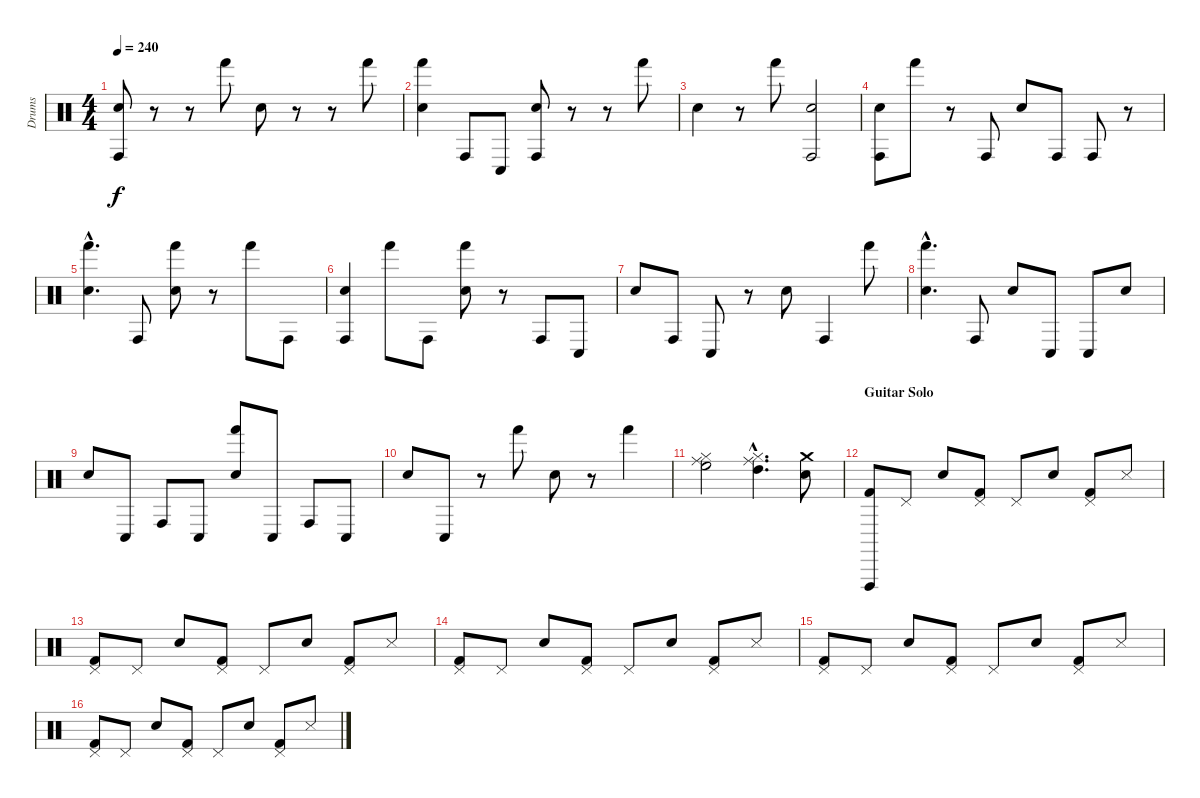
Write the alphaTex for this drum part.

\track ("Drums" "Drums") {instrument percussion}
\staff {score}
\articulation defaults
\ts (4 4)
\tempo 240
\clef neutral
\ks c
("Hand Clap (hit)" "Conga high (hit)").8{dy f} r.8 r.8 "Hand (hit)".8 "Hand Clap (hit)".8 r.8 r.8 "Hand (hit)".8 |
("Hand Clap (hit)" "Hand (hit)").4 "Conga high (hit)".8 "Conga low (hit)".8 ("Hand Clap (hit)" "Conga high (hit)").8 r.8 r.8 "Hand (hit)".8 |
"Hand Clap (hit)".4 r.8 "Hand (hit)".8 ("Hand Clap (hit)" "Conga high (hit)").2 |
("Hand Clap (hit)" "Conga high (hit)").8 "Hand (hit)".8 r.8 "Conga high (hit)".8 "Hand Clap (hit)".8 "Conga high (hit)".8 "Conga high (hit)".8 r.8 |
("Hand Clap (hit)"{hac} "Hand (hit)"{hac}).4{d} "Conga high (hit)".8 ("Hand Clap (hit)" "Hand (hit)").8 r.8 "Hand (hit)".8 "Conga high (hit)".8 |
("Hand Clap (hit)" "Conga high (hit)").4 "Hand (hit)".8 "Conga high (hit)".8 ("Hand Clap (hit)" "Hand (hit)").8 r.8 "Conga high (hit)".8 "Conga low (hit)".8 |
"Hand Clap (hit)".8 "Conga high (hit)".8 "Conga low (hit)".8 r.8 "Hand Clap (hit)".8 "Conga high (hit)".4 "Hand (hit)".8 |
("Hand Clap (hit)"{hac} "Hand (hit)"{hac}).4{d} "Conga high (hit)".8 "Hand Clap (hit)".8 "Conga low (hit)".8 "Conga low (hit)".8 "Hand Clap (hit)".8 |
"Hand Clap (hit)".8 "Conga low (hit)".8 "Conga high (hit)".8 "Conga low (hit)".8 ("Hand Clap (hit)" "Hand (hit)").8 "Conga low (hit)".8 "Conga high (hit)".8 "Conga low (hit)".8 |
"Hand Clap (hit)".8 "Conga low (hit)".8 r.8 "Hand (hit)".8 "Hand Clap (hit)".8 r.8 "Hand (hit)".4 |
("Ride (middle)" "Hi-Hat (closed)" "High Floor Tom (hit)").2 ("Ride (middle)"{hac} "Hi-Hat (closed)"{hac} "High Tom (hit)"{hac}).4{d} ("Crash medium (hit)" "Electric Snare (hit)").8 |
\section ("" "Guitar Solo")
("Vibraslap (hit)" "Kick (hit) 2").8 "Pedal Hi-Hat (hit)".8 "Electric Snare (hit)".8 ("Pedal Hi-Hat (hit)" "Kick (hit) 2").8 "Pedal Hi-Hat (hit)".8 "Electric Snare (hit)".8 ("Pedal Hi-Hat (hit)" "Kick (hit) 2").8 "Snare (side stick) 3".8 |
("Pedal Hi-Hat (hit)" "Kick (hit) 2").8 "Pedal Hi-Hat (hit)".8 "Electric Snare (hit)".8 ("Pedal Hi-Hat (hit)" "Kick (hit) 2").8 "Pedal Hi-Hat (hit)".8 "Electric Snare (hit)".8 ("Pedal Hi-Hat (hit)" "Kick (hit) 2").8 "Snare (side stick) 3".8 |
("Pedal Hi-Hat (hit)" "Kick (hit) 2").8 "Pedal Hi-Hat (hit)".8 "Electric Snare (hit)".8 ("Pedal Hi-Hat (hit)" "Kick (hit) 2").8 "Pedal Hi-Hat (hit)".8 "Electric Snare (hit)".8 ("Pedal Hi-Hat (hit)" "Kick (hit) 2").8 "Snare (side stick) 3".8 |
("Pedal Hi-Hat (hit)" "Kick (hit) 2").8 "Pedal Hi-Hat (hit)".8 "Electric Snare (hit)".8 ("Pedal Hi-Hat (hit)" "Kick (hit) 2").8 "Pedal Hi-Hat (hit)".8 "Electric Snare (hit)".8 ("Pedal Hi-Hat (hit)" "Kick (hit) 2").8 "Snare (side stick) 3".8 |
("Pedal Hi-Hat (hit)" "Kick (hit) 2").8 "Pedal Hi-Hat (hit)".8 "Electric Snare (hit)".8 ("Pedal Hi-Hat (hit)" "Kick (hit) 2").8 "Pedal Hi-Hat (hit)".8 "Electric Snare (hit)".8 ("Pedal Hi-Hat (hit)" "Kick (hit) 2").8 "Snare (side stick) 3".8
